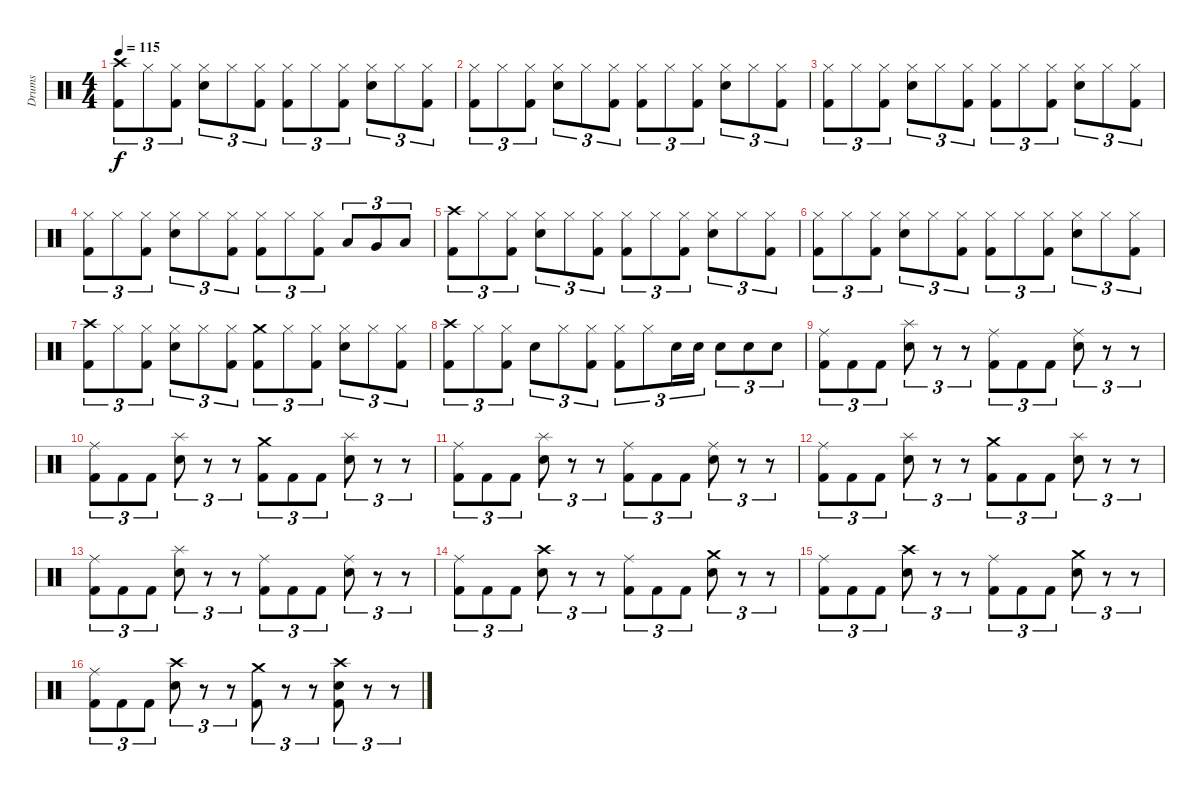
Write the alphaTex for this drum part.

\track ("Drums" "Drums") {instrument percussion}
\staff {score}
\articulation defaults
\ts (4 4)
\tempo 115
\clef neutral
\ks c
("Crash high (hit)" "Kick (hit) 2").8{tu (3 2) dy f} "Hi-Hat (closed)".8{tu (3 2)} ("Hi-Hat (closed)" "Kick (hit) 2").8{tu (3 2)} ("Hi-Hat (closed)" "Snare (hit) 2").8{tu (3 2)} "Hi-Hat (closed)".8{tu (3 2)} ("Hi-Hat (closed)" "Kick (hit) 2").8{tu (3 2)} ("Hi-Hat (closed)" "Kick (hit) 2").8{tu (3 2)} "Hi-Hat (closed)".8{tu (3 2)} ("Hi-Hat (closed)" "Kick (hit) 2").8{tu (3 2)} ("Hi-Hat (closed)" "Snare (hit) 2").8{tu (3 2)} "Hi-Hat (closed)".8{tu (3 2)} ("Hi-Hat (closed)" "Kick (hit) 2").8{tu (3 2)} |
("Hi-Hat (closed)" "Kick (hit) 2").8{tu (3 2)} "Hi-Hat (closed)".8{tu (3 2)} ("Hi-Hat (closed)" "Kick (hit) 2").8{tu (3 2)} ("Hi-Hat (closed)" "Snare (hit) 2").8{tu (3 2)} "Hi-Hat (closed)".8{tu (3 2)} ("Hi-Hat (closed)" "Kick (hit) 2").8{tu (3 2)} ("Hi-Hat (closed)" "Kick (hit) 2").8{tu (3 2)} "Hi-Hat (closed)".8{tu (3 2)} ("Hi-Hat (closed)" "Kick (hit) 2").8{tu (3 2)} ("Hi-Hat (closed)" "Snare (hit) 2").8{tu (3 2)} "Hi-Hat (closed)".8{tu (3 2)} ("Hi-Hat (closed)" "Kick (hit) 2").8{tu (3 2)} |
("Hi-Hat (closed)" "Kick (hit) 2").8{tu (3 2)} "Hi-Hat (closed)".8{tu (3 2)} ("Hi-Hat (closed)" "Kick (hit) 2").8{tu (3 2)} ("Hi-Hat (closed)" "Snare (hit) 2").8{tu (3 2)} "Hi-Hat (closed)".8{tu (3 2)} ("Hi-Hat (closed)" "Kick (hit) 2").8{tu (3 2)} ("Hi-Hat (closed)" "Kick (hit) 2").8{tu (3 2)} "Hi-Hat (closed)".8{tu (3 2)} ("Hi-Hat (closed)" "Kick (hit) 2").8{tu (3 2)} ("Hi-Hat (closed)" "Snare (hit) 2").8{tu (3 2)} "Hi-Hat (closed)".8{tu (3 2)} ("Hi-Hat (closed)" "Kick (hit) 2").8{tu (3 2)} |
("Hi-Hat (closed)" "Kick (hit) 2").8{tu (3 2)} "Hi-Hat (closed)".8{tu (3 2)} ("Hi-Hat (closed)" "Kick (hit) 2").8{tu (3 2)} ("Hi-Hat (closed)" "Snare (hit) 2").8{tu (3 2)} "Hi-Hat (closed)".8{tu (3 2)} ("Hi-Hat (closed)" "Kick (hit) 2").8{tu (3 2)} ("Hi-Hat (closed)" "Kick (hit) 2").8{tu (3 2)} "Hi-Hat (closed)".8{tu (3 2)} ("Hi-Hat (closed)" "Kick (hit) 2").8{tu (3 2)} "Low Tom (hit)".8{tu (3 2)} "Very Low Tom (hit)".8{tu (3 2)} "Low Floor Tom (hit)".8{tu (3 2)} |
("Crash high (hit)" "Kick (hit) 2").8{tu (3 2)} "Hi-Hat (closed)".8{tu (3 2)} ("Hi-Hat (closed)" "Kick (hit) 2").8{tu (3 2)} ("Hi-Hat (closed)" "Snare (hit) 2").8{tu (3 2)} "Hi-Hat (closed)".8{tu (3 2)} ("Hi-Hat (closed)" "Kick (hit) 2").8{tu (3 2)} ("Hi-Hat (closed)" "Kick (hit) 2").8{tu (3 2)} "Hi-Hat (closed)".8{tu (3 2)} ("Hi-Hat (closed)" "Kick (hit) 2").8{tu (3 2)} ("Hi-Hat (closed)" "Snare (hit) 2").8{tu (3 2)} "Hi-Hat (closed)".8{tu (3 2)} ("Hi-Hat (closed)" "Kick (hit) 2").8{tu (3 2)} |
("Hi-Hat (closed)" "Kick (hit) 2").8{tu (3 2)} "Hi-Hat (closed)".8{tu (3 2)} ("Hi-Hat (closed)" "Kick (hit) 2").8{tu (3 2)} ("Hi-Hat (closed)" "Snare (hit) 2").8{tu (3 2)} "Hi-Hat (closed)".8{tu (3 2)} ("Hi-Hat (closed)" "Kick (hit) 2").8{tu (3 2)} ("Hi-Hat (closed)" "Kick (hit) 2").8{tu (3 2)} "Hi-Hat (closed)".8{tu (3 2)} ("Hi-Hat (closed)" "Kick (hit) 2").8{tu (3 2)} ("Hi-Hat (closed)" "Snare (hit) 2").8{tu (3 2)} "Hi-Hat (closed)".8{tu (3 2)} ("Hi-Hat (closed)" "Kick (hit) 2").8{tu (3 2)} |
("Crash high (hit)" "Kick (hit) 2").8{tu (3 2)} "Hi-Hat (closed)".8{tu (3 2)} ("Hi-Hat (closed)" "Kick (hit) 2").8{tu (3 2)} ("Hi-Hat (closed)" "Snare (hit) 2").8{tu (3 2)} "Hi-Hat (closed)".8{tu (3 2)} ("Hi-Hat (closed)" "Kick (hit) 2").8{tu (3 2)} ("Crash medium (hit)" "Kick (hit) 2").8{tu (3 2)} "Hi-Hat (closed)".8{tu (3 2)} ("Hi-Hat (closed)" "Kick (hit) 2").8{tu (3 2)} ("Hi-Hat (closed)" "Snare (hit) 2").8{tu (3 2)} "Hi-Hat (closed)".8{tu (3 2)} ("Hi-Hat (closed)" "Kick (hit) 2").8{tu (3 2)} |
("Crash high (hit)" "Kick (hit) 2").8{tu (3 2)} "Hi-Hat (closed)".8{tu (3 2)} ("Hi-Hat (closed)" "Kick (hit) 2").8{tu (3 2)} "Snare (hit) 2".8{tu (3 2)} "Hi-Hat (closed)".8{tu (3 2)} ("Hi-Hat (closed)" "Kick (hit) 2").8{tu (3 2)} ("Hi-Hat (closed)" "Kick (hit) 2").8{tu (3 2)} "Hi-Hat (closed)".8{tu (3 2)} "Snare (hit) 2".16{tu (3 2)} "Snare (hit) 2".16{tu (3 2)} "Snare (hit) 2".8{tu (3 2)} "Snare (hit) 2".8{tu (3 2)} "Snare (hit) 2".8{tu (3 2)} |
("Ride (middle)" "Kick (hit) 2").8{tu (3 2)} "Kick (hit) 2".8{tu (3 2)} "Kick (hit) 2".8{tu (3 2)} ("Splash (hit)" "Snare (hit) 2").8{tu (3 2)} r.8{tu (3 2)} r.8{tu (3 2)} ("Ride (middle)" "Kick (hit) 2").8{tu (3 2)} "Kick (hit) 2".8{tu (3 2)} "Kick (hit) 2".8{tu (3 2)} ("Ride (middle)" "Snare (hit) 2").8{tu (3 2)} r.8{tu (3 2)} r.8{tu (3 2)} |
("Ride (middle)" "Kick (hit) 2").8{tu (3 2)} "Kick (hit) 2".8{tu (3 2)} "Kick (hit) 2".8{tu (3 2)} ("Splash (hit)" "Snare (hit) 2").8{tu (3 2)} r.8{tu (3 2)} r.8{tu (3 2)} ("Crash medium (hit)" "Kick (hit) 2").8{tu (3 2)} "Kick (hit) 2".8{tu (3 2)} "Kick (hit) 2".8{tu (3 2)} ("Splash (hit)" "Snare (hit) 2").8{tu (3 2)} r.8{tu (3 2)} r.8{tu (3 2)} |
("Ride (middle)" "Kick (hit) 2").8{tu (3 2)} "Kick (hit) 2".8{tu (3 2)} "Kick (hit) 2".8{tu (3 2)} ("Splash (hit)" "Snare (hit) 2").8{tu (3 2)} r.8{tu (3 2)} r.8{tu (3 2)} ("Ride (middle)" "Kick (hit) 2").8{tu (3 2)} "Kick (hit) 2".8{tu (3 2)} "Kick (hit) 2".8{tu (3 2)} ("Ride (middle)" "Snare (hit) 2").8{tu (3 2)} r.8{tu (3 2)} r.8{tu (3 2)} |
("Ride (middle)" "Kick (hit) 2").8{tu (3 2)} "Kick (hit) 2".8{tu (3 2)} "Kick (hit) 2".8{tu (3 2)} ("Splash (hit)" "Snare (hit) 2").8{tu (3 2)} r.8{tu (3 2)} r.8{tu (3 2)} ("Crash medium (hit)" "Kick (hit) 2").8{tu (3 2)} "Kick (hit) 2".8{tu (3 2)} "Kick (hit) 2".8{tu (3 2)} ("Splash (hit)" "Snare (hit) 2").8{tu (3 2)} r.8{tu (3 2)} r.8{tu (3 2)} |
("Ride (middle)" "Kick (hit) 2").8{tu (3 2)} "Kick (hit) 2".8{tu (3 2)} "Kick (hit) 2".8{tu (3 2)} ("Splash (hit)" "Snare (hit) 2").8{tu (3 2)} r.8{tu (3 2)} r.8{tu (3 2)} ("Ride (middle)" "Kick (hit) 2").8{tu (3 2)} "Kick (hit) 2".8{tu (3 2)} "Kick (hit) 2".8{tu (3 2)} ("Ride (middle)" "Snare (hit) 2").8{tu (3 2)} r.8{tu (3 2)} r.8{tu (3 2)} |
("Ride (middle)" "Kick (hit) 2").8{tu (3 2)} "Kick (hit) 2".8{tu (3 2)} "Kick (hit) 2".8{tu (3 2)} ("Crash high (hit)" "Snare (hit) 2").8{tu (3 2)} r.8{tu (3 2)} r.8{tu (3 2)} ("Ride (middle)" "Kick (hit) 2").8{tu (3 2)} "Kick (hit) 2".8{tu (3 2)} "Kick (hit) 2".8{tu (3 2)} ("Crash medium (hit)" "Snare (hit) 2").8{tu (3 2)} r.8{tu (3 2)} r.8{tu (3 2)} |
("Ride (middle)" "Kick (hit) 2").8{tu (3 2)} "Kick (hit) 2".8{tu (3 2)} "Kick (hit) 2".8{tu (3 2)} ("Crash high (hit)" "Snare (hit) 2").8{tu (3 2)} r.8{tu (3 2)} r.8{tu (3 2)} ("Ride (middle)" "Kick (hit) 2").8{tu (3 2)} "Kick (hit) 2".8{tu (3 2)} "Kick (hit) 2".8{tu (3 2)} ("Crash medium (hit)" "Snare (hit) 2").8{tu (3 2)} r.8{tu (3 2)} r.8{tu (3 2)} |
("Ride (middle)" "Kick (hit) 2").8{tu (3 2)} "Kick (hit) 2".8{tu (3 2)} "Kick (hit) 2".8{tu (3 2)} ("Crash high (hit)" "Snare (hit) 2").8{tu (3 2)} r.8{tu (3 2)} r.8{tu (3 2)} ("Crash medium (hit)" "Kick (hit) 2").8{tu (3 2)} r.8{tu (3 2)} r.8{tu (3 2)} ("Crash high (hit)" "Snare (hit) 2" "Kick (hit) 2").8{tu (3 2)} r.8{tu (3 2)} r.8{tu (3 2)}
